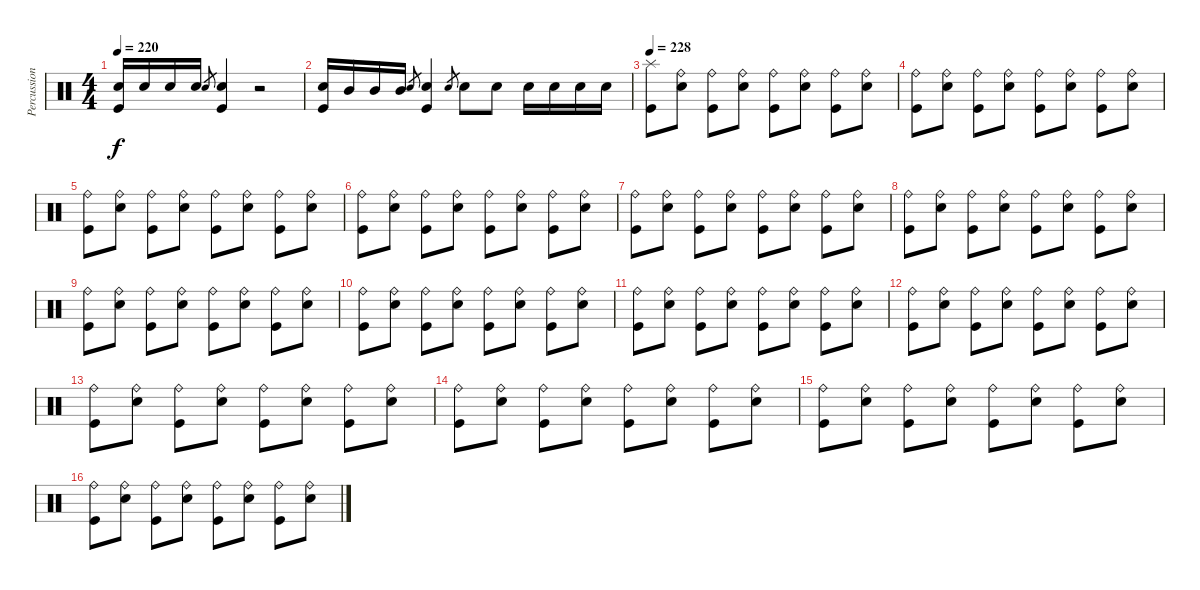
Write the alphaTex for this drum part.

\track ("Percussions" "Percussion") {instrument percussion}
\staff {score}
\articulation defaults
\ts (4 4)
\tempo 220
\clef neutral
\ks c
("Kick (hit)" "Electric Snare (hit)").16{dy f} "Electric Snare (hit)".16 "Electric Snare (hit)".16 "Electric Snare (hit)".16 "Electric Snare (hit)".8{gr} ("Kick (hit)" "Electric Snare (hit)").4 r.2 |
("Kick (hit)" "Electric Snare (hit)").16 "Mid Tom (hit)".16 "Mid Tom (hit)".16 "Mid Tom (hit)".16 "Electric Snare (hit)".8{gr} ("Kick (hit)" "Electric Snare (hit)").4 "Electric Snare (hit)".8{gr} "Electric Snare (hit)".8 "Electric Snare (hit)".8 "Electric Snare (hit)".16 "Electric Snare (hit)".16 "Electric Snare (hit)".16 "Electric Snare (hit)".16 |
\tempo 228
("Kick (hit)" "Splash (hit)").8 ("Electric Snare (hit)" "Ride (bell)").8 ("Kick (hit)" "Ride (bell)").8 ("Electric Snare (hit)" "Ride (bell)").8 ("Kick (hit)" "Ride (bell)").8 ("Electric Snare (hit)" "Ride (bell)").8 ("Kick (hit)" "Ride (bell)").8 ("Electric Snare (hit)" "Ride (bell)").8 |
("Kick (hit)" "Ride (bell)").8 ("Electric Snare (hit)" "Ride (bell)").8 ("Kick (hit)" "Ride (bell)").8 ("Electric Snare (hit)" "Ride (bell)").8 ("Kick (hit)" "Ride (bell)").8 ("Electric Snare (hit)" "Ride (bell)").8 ("Kick (hit)" "Ride (bell)").8 ("Electric Snare (hit)" "Ride (bell)").8 |
("Kick (hit)" "Ride (bell)").8 ("Electric Snare (hit)" "Ride (bell)").8 ("Kick (hit)" "Ride (bell)").8 ("Electric Snare (hit)" "Ride (bell)").8 ("Kick (hit)" "Ride (bell)").8 ("Electric Snare (hit)" "Ride (bell)").8 ("Kick (hit)" "Ride (bell)").8 ("Electric Snare (hit)" "Ride (bell)").8 |
("Kick (hit)" "Ride (bell)").8 ("Electric Snare (hit)" "Ride (bell)").8 ("Kick (hit)" "Ride (bell)").8 ("Electric Snare (hit)" "Ride (bell)").8 ("Kick (hit)" "Ride (bell)").8 ("Electric Snare (hit)" "Ride (bell)").8 ("Kick (hit)" "Ride (bell)").8 ("Electric Snare (hit)" "Ride (bell)").8 |
("Kick (hit)" "Ride (bell)").8 ("Electric Snare (hit)" "Ride (bell)").8 ("Kick (hit)" "Ride (bell)").8 ("Electric Snare (hit)" "Ride (bell)").8 ("Kick (hit)" "Ride (bell)").8 ("Electric Snare (hit)" "Ride (bell)").8 ("Kick (hit)" "Ride (bell)").8 ("Electric Snare (hit)" "Ride (bell)").8 |
("Kick (hit)" "Ride (bell)").8 ("Electric Snare (hit)" "Ride (bell)").8 ("Kick (hit)" "Ride (bell)").8 ("Electric Snare (hit)" "Ride (bell)").8 ("Kick (hit)" "Ride (bell)").8 ("Electric Snare (hit)" "Ride (bell)").8 ("Kick (hit)" "Ride (bell)").8 ("Electric Snare (hit)" "Ride (bell)").8 |
("Kick (hit)" "Ride (bell)").8 ("Electric Snare (hit)" "Ride (bell)").8 ("Kick (hit)" "Ride (bell)").8 ("Electric Snare (hit)" "Ride (bell)").8 ("Kick (hit)" "Ride (bell)").8 ("Electric Snare (hit)" "Ride (bell)").8 ("Kick (hit)" "Ride (bell)").8 ("Electric Snare (hit)" "Ride (bell)").8 |
("Kick (hit)" "Ride (bell)").8 ("Electric Snare (hit)" "Ride (bell)").8 ("Kick (hit)" "Ride (bell)").8 ("Electric Snare (hit)" "Ride (bell)").8 ("Kick (hit)" "Ride (bell)").8 ("Electric Snare (hit)" "Ride (bell)").8 ("Kick (hit)" "Ride (bell)").8 ("Electric Snare (hit)" "Ride (bell)").8 |
("Kick (hit)" "Ride (bell)").8 ("Electric Snare (hit)" "Ride (bell)").8 ("Kick (hit)" "Ride (bell)").8 ("Electric Snare (hit)" "Ride (bell)").8 ("Kick (hit)" "Ride (bell)").8 ("Electric Snare (hit)" "Ride (bell)").8 ("Kick (hit)" "Ride (bell)").8 ("Electric Snare (hit)" "Ride (bell)").8 |
("Kick (hit)" "Ride (bell)").8 ("Electric Snare (hit)" "Ride (bell)").8 ("Kick (hit)" "Ride (bell)").8 ("Electric Snare (hit)" "Ride (bell)").8 ("Kick (hit)" "Ride (bell)").8 ("Electric Snare (hit)" "Ride (bell)").8 ("Kick (hit)" "Ride (bell)").8 ("Electric Snare (hit)" "Ride (bell)").8 |
("Kick (hit)" "Ride (bell)").8 ("Electric Snare (hit)" "Ride (bell)").8 ("Kick (hit)" "Ride (bell)").8 ("Electric Snare (hit)" "Ride (bell)").8 ("Kick (hit)" "Ride (bell)").8 ("Electric Snare (hit)" "Ride (bell)").8 ("Kick (hit)" "Ride (bell)").8 ("Electric Snare (hit)" "Ride (bell)").8 |
("Kick (hit)" "Ride (bell)").8 ("Electric Snare (hit)" "Ride (bell)").8 ("Kick (hit)" "Ride (bell)").8 ("Electric Snare (hit)" "Ride (bell)").8 ("Kick (hit)" "Ride (bell)").8 ("Electric Snare (hit)" "Ride (bell)").8 ("Kick (hit)" "Ride (bell)").8 ("Electric Snare (hit)" "Ride (bell)").8 |
("Kick (hit)" "Ride (bell)").8 ("Electric Snare (hit)" "Ride (bell)").8 ("Kick (hit)" "Ride (bell)").8 ("Electric Snare (hit)" "Ride (bell)").8 ("Kick (hit)" "Ride (bell)").8 ("Electric Snare (hit)" "Ride (bell)").8 ("Kick (hit)" "Ride (bell)").8 ("Electric Snare (hit)" "Ride (bell)").8 |
("Kick (hit)" "Ride (bell)").8 ("Electric Snare (hit)" "Ride (bell)").8 ("Kick (hit)" "Ride (bell)").8 ("Electric Snare (hit)" "Ride (bell)").8 ("Kick (hit)" "Ride (bell)").8 ("Electric Snare (hit)" "Ride (bell)").8 ("Kick (hit)" "Ride (bell)").8 ("Electric Snare (hit)" "Ride (bell)").8
